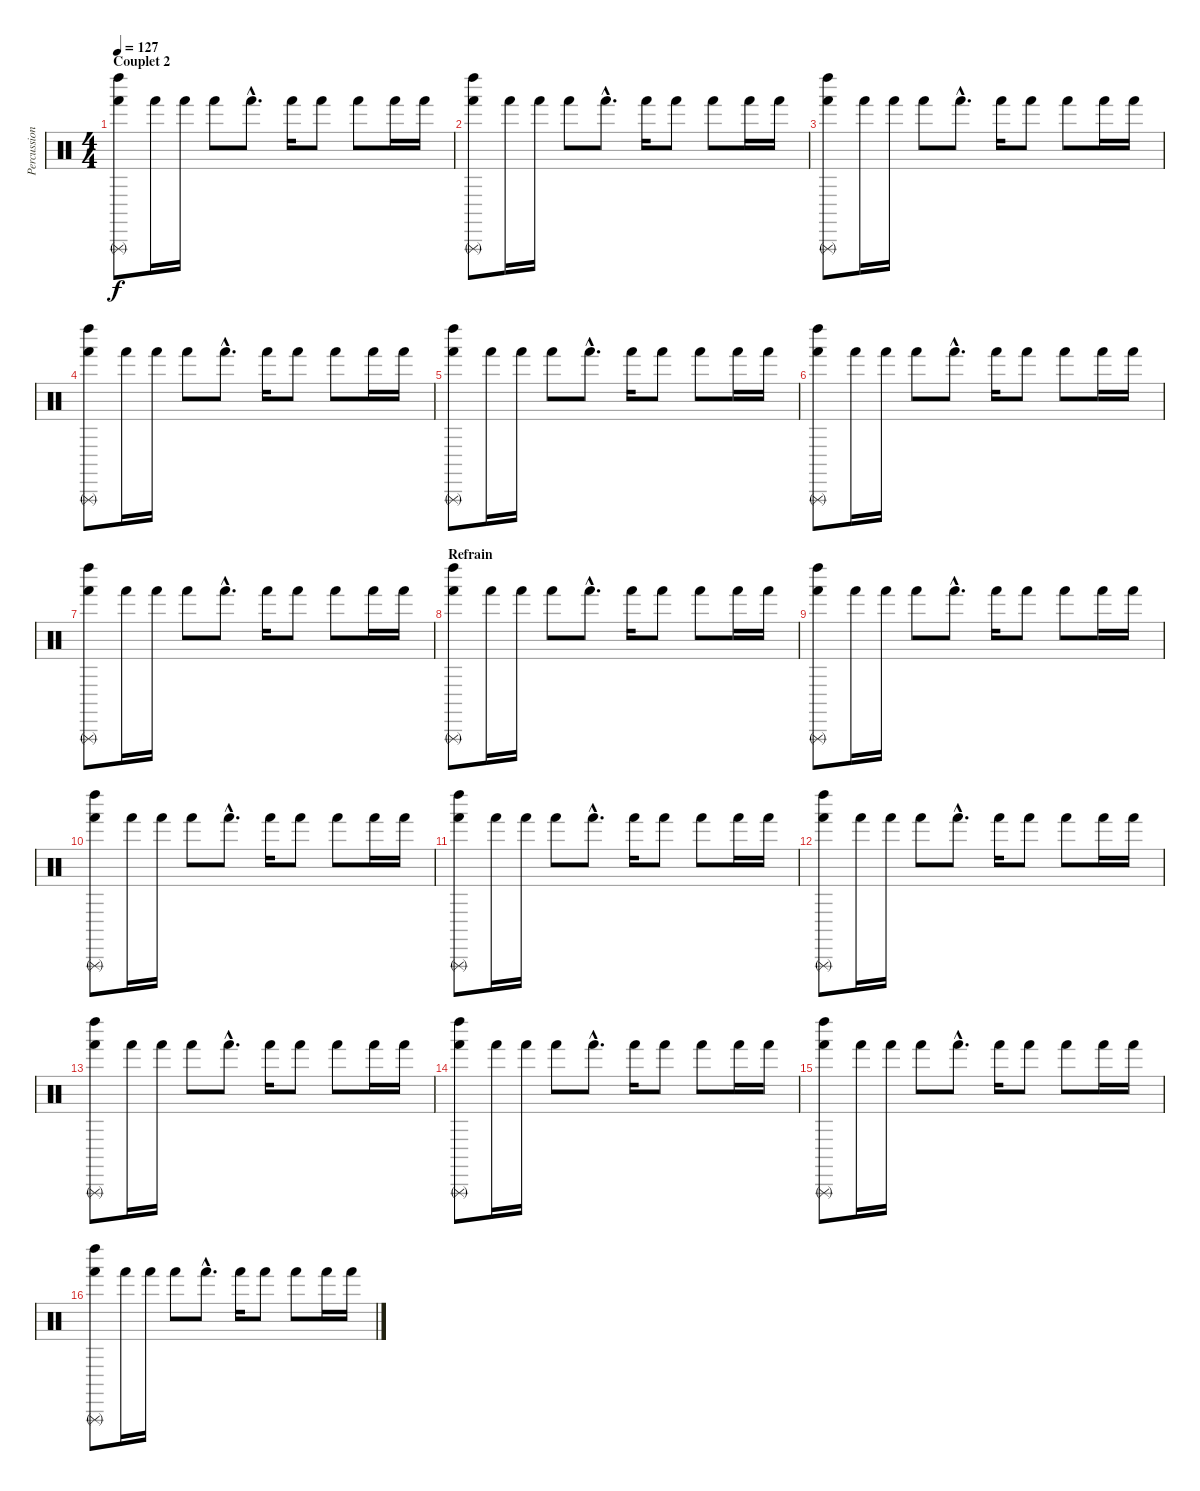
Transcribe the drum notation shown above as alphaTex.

\track ("Percussions" "Percussion") {instrument percussion}
\staff {score}
\articulation defaults
\ts (4 4)
\section ("" "Couplet 2")
\tempo 127
\clef neutral
\ks c
("Hand (hit)" "Triangle (rnute)" "Left Maraca (hit)").8{dy f} "Hand (hit)".16 "Hand (hit)".16 "Hand (hit)".8 "Hand (hit)"{hac}.8{d} "Hand (hit)".16 "Hand (hit)".8 "Hand (hit)".8 "Hand (hit)".16 "Hand (hit)".16 |
("Hand (hit)" "Triangle (rnute)" "Left Maraca (hit)").8 "Hand (hit)".16 "Hand (hit)".16 "Hand (hit)".8 "Hand (hit)"{hac}.8{d} "Hand (hit)".16 "Hand (hit)".8 "Hand (hit)".8 "Hand (hit)".16 "Hand (hit)".16 |
("Hand (hit)" "Triangle (rnute)" "Left Maraca (hit)").8 "Hand (hit)".16 "Hand (hit)".16 "Hand (hit)".8 "Hand (hit)"{hac}.8{d} "Hand (hit)".16 "Hand (hit)".8 "Hand (hit)".8 "Hand (hit)".16 "Hand (hit)".16 |
("Hand (hit)" "Triangle (rnute)" "Left Maraca (hit)").8 "Hand (hit)".16 "Hand (hit)".16 "Hand (hit)".8 "Hand (hit)"{hac}.8{d} "Hand (hit)".16 "Hand (hit)".8 "Hand (hit)".8 "Hand (hit)".16 "Hand (hit)".16 |
("Hand (hit)" "Triangle (rnute)" "Left Maraca (hit)").8 "Hand (hit)".16 "Hand (hit)".16 "Hand (hit)".8 "Hand (hit)"{hac}.8{d} "Hand (hit)".16 "Hand (hit)".8 "Hand (hit)".8 "Hand (hit)".16 "Hand (hit)".16 |
("Hand (hit)" "Triangle (rnute)" "Left Maraca (hit)").8 "Hand (hit)".16 "Hand (hit)".16 "Hand (hit)".8 "Hand (hit)"{hac}.8{d} "Hand (hit)".16 "Hand (hit)".8 "Hand (hit)".8 "Hand (hit)".16 "Hand (hit)".16 |
("Hand (hit)" "Triangle (rnute)" "Left Maraca (hit)").8 "Hand (hit)".16 "Hand (hit)".16 "Hand (hit)".8 "Hand (hit)"{hac}.8{d} "Hand (hit)".16 "Hand (hit)".8 "Hand (hit)".8 "Hand (hit)".16 "Hand (hit)".16 |
\section ("" "Refrain")
("Hand (hit)" "Triangle (rnute)" "Left Maraca (hit)").8 "Hand (hit)".16 "Hand (hit)".16 "Hand (hit)".8 "Hand (hit)"{hac}.8{d} "Hand (hit)".16 "Hand (hit)".8 "Hand (hit)".8 "Hand (hit)".16 "Hand (hit)".16 |
("Hand (hit)" "Triangle (rnute)" "Left Maraca (hit)").8 "Hand (hit)".16 "Hand (hit)".16 "Hand (hit)".8 "Hand (hit)"{hac}.8{d} "Hand (hit)".16 "Hand (hit)".8 "Hand (hit)".8 "Hand (hit)".16 "Hand (hit)".16 |
("Hand (hit)" "Triangle (rnute)" "Left Maraca (hit)").8 "Hand (hit)".16 "Hand (hit)".16 "Hand (hit)".8 "Hand (hit)"{hac}.8{d} "Hand (hit)".16 "Hand (hit)".8 "Hand (hit)".8 "Hand (hit)".16 "Hand (hit)".16 |
("Hand (hit)" "Triangle (rnute)" "Left Maraca (hit)").8 "Hand (hit)".16 "Hand (hit)".16 "Hand (hit)".8 "Hand (hit)"{hac}.8{d} "Hand (hit)".16 "Hand (hit)".8 "Hand (hit)".8 "Hand (hit)".16 "Hand (hit)".16 |
("Hand (hit)" "Triangle (rnute)" "Left Maraca (hit)").8 "Hand (hit)".16 "Hand (hit)".16 "Hand (hit)".8 "Hand (hit)"{hac}.8{d} "Hand (hit)".16 "Hand (hit)".8 "Hand (hit)".8 "Hand (hit)".16 "Hand (hit)".16 |
("Hand (hit)" "Triangle (rnute)" "Left Maraca (hit)").8 "Hand (hit)".16 "Hand (hit)".16 "Hand (hit)".8 "Hand (hit)"{hac}.8{d} "Hand (hit)".16 "Hand (hit)".8 "Hand (hit)".8 "Hand (hit)".16 "Hand (hit)".16 |
("Hand (hit)" "Triangle (rnute)" "Left Maraca (hit)").8 "Hand (hit)".16 "Hand (hit)".16 "Hand (hit)".8 "Hand (hit)"{hac}.8{d} "Hand (hit)".16 "Hand (hit)".8 "Hand (hit)".8 "Hand (hit)".16 "Hand (hit)".16 |
("Hand (hit)" "Triangle (rnute)" "Left Maraca (hit)").8 "Hand (hit)".16 "Hand (hit)".16 "Hand (hit)".8 "Hand (hit)"{hac}.8{d} "Hand (hit)".16 "Hand (hit)".8 "Hand (hit)".8 "Hand (hit)".16 "Hand (hit)".16 |
("Hand (hit)" "Triangle (rnute)" "Left Maraca (hit)").8 "Hand (hit)".16 "Hand (hit)".16 "Hand (hit)".8 "Hand (hit)"{hac}.8{d} "Hand (hit)".16 "Hand (hit)".8 "Hand (hit)".8 "Hand (hit)".16 "Hand (hit)".16
